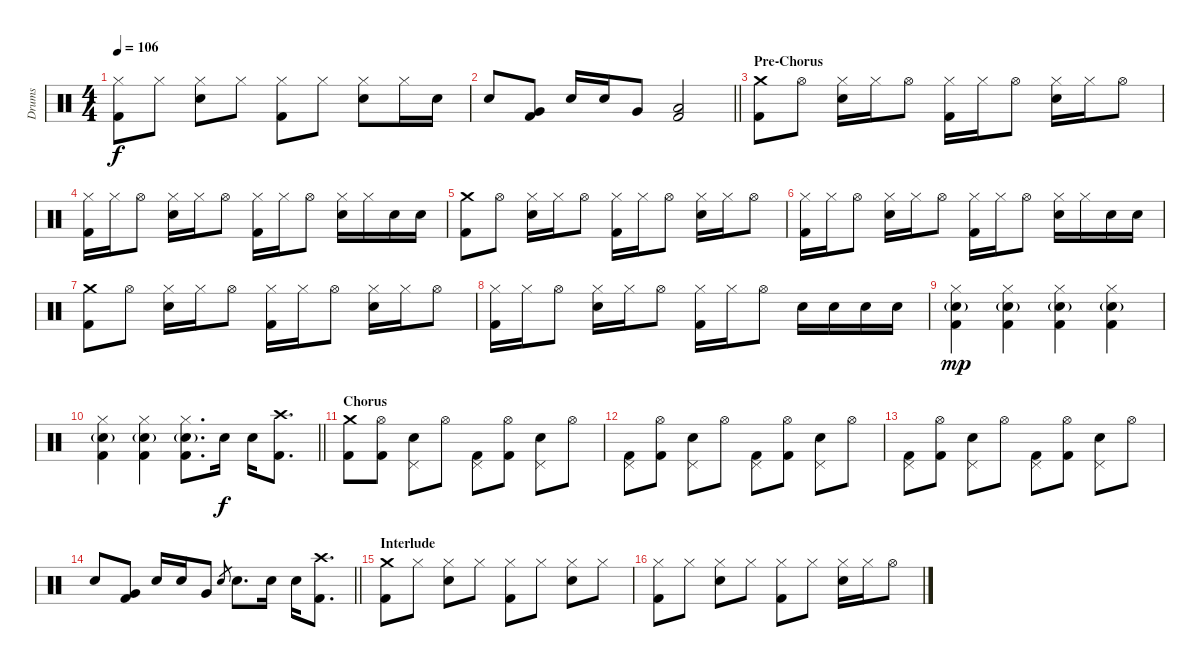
\track ("Drums" "Drums") {instrument percussion}
\staff {score}
\articulation defaults
\ts (4 4)
\tempo 106
\clef neutral
\ks c
("Hi-Hat (closed)" "Kick (hit) 2").8{dy f} "Hi-Hat (closed)".8 ("Hi-Hat (closed)" "Electric Snare (hit)").8 "Hi-Hat (closed)".8 ("Hi-Hat (closed)" "Kick (hit) 2").8 "Hi-Hat (closed)".8 ("Hi-Hat (closed)" "Electric Snare (hit)").8 "Hi-Hat (closed)".16 "Electric Snare (hit)".16 |
\barLineRight lightlight "Electric Snare (hit)".8
("Very Low Tom (hit)" "Kick (hit) 2").8 "Electric Snare (hit)".16 "Electric Snare (hit)".16 "Very Low Tom (hit)".8 ("Low Floor Tom (hit)" "Kick (hit) 2").2 |
\section ("" "Pre-Chorus")
("Crash medium (hit)" "Kick (hit) 2").8 "Hi-Hat (open)".8 ("Hi-Hat (closed)" "Electric Snare (hit)").16 "Hi-Hat (closed)".16 "Hi-Hat (open)".8 ("Hi-Hat (closed)" "Kick (hit) 2").16 "Hi-Hat (closed)".16 "Hi-Hat (open)".8 ("Hi-Hat (closed)" "Electric Snare (hit)").16 "Hi-Hat (closed)".16 "Hi-Hat (open)".8 |
("Hi-Hat (closed)" "Kick (hit) 2").16 "Hi-Hat (closed)".16 "Hi-Hat (open)".8 ("Hi-Hat (closed)" "Electric Snare (hit)").16 "Hi-Hat (closed)".16 "Hi-Hat (open)".8 ("Hi-Hat (closed)" "Kick (hit) 2").16 "Hi-Hat (closed)".16 "Hi-Hat (open)".8 ("Hi-Hat (closed)" "Electric Snare (hit)").16 "Hi-Hat (closed)".16 "Electric Snare (hit)".16 "Electric Snare (hit)".16 |
("Crash medium (hit)" "Kick (hit) 2").8 "Hi-Hat (open)".8 ("Hi-Hat (closed)" "Electric Snare (hit)").16 "Hi-Hat (closed)".16 "Hi-Hat (open)".8 ("Hi-Hat (closed)" "Kick (hit) 2").16 "Hi-Hat (closed)".16 "Hi-Hat (open)".8 ("Hi-Hat (closed)" "Electric Snare (hit)").16 "Hi-Hat (closed)".16 "Hi-Hat (open)".8 |
("Hi-Hat (closed)" "Kick (hit) 2").16 "Hi-Hat (closed)".16 "Hi-Hat (open)".8 ("Hi-Hat (closed)" "Electric Snare (hit)").16 "Hi-Hat (closed)".16 "Hi-Hat (open)".8 ("Hi-Hat (closed)" "Kick (hit) 2").16 "Hi-Hat (closed)".16 "Hi-Hat (open)".8 ("Hi-Hat (closed)" "Electric Snare (hit)").16 "Hi-Hat (closed)".16 "Electric Snare (hit)".16 "Electric Snare (hit)".16 |
("Crash medium (hit)" "Kick (hit) 2").8 "Hi-Hat (open)".8 ("Hi-Hat (closed)" "Electric Snare (hit)").16 "Hi-Hat (closed)".16 "Hi-Hat (open)".8 ("Hi-Hat (closed)" "Kick (hit) 2").16 "Hi-Hat (closed)".16 "Hi-Hat (open)".8 ("Hi-Hat (closed)" "Electric Snare (hit)").16 "Hi-Hat (closed)".16 "Hi-Hat (open)".8 |
("Hi-Hat (closed)" "Kick (hit) 2").16 "Hi-Hat (closed)".16 "Hi-Hat (open)".8 ("Hi-Hat (closed)" "Electric Snare (hit)").16 "Hi-Hat (closed)".16 "Hi-Hat (open)".8 ("Hi-Hat (closed)" "Kick (hit) 2").16 "Hi-Hat (closed)".16 "Hi-Hat (open)".8 "Electric Snare (hit)".16 "Electric Snare (hit)".16 "Electric Snare (hit)".16 "Electric Snare (hit)".16 |
("Hi-Hat (closed)" "Electric Snare (hit)"{g} "Kick (hit) 2").4{dy mp} ("Hi-Hat (closed)" "Electric Snare (hit)"{g} "Kick (hit) 2").4 ("Hi-Hat (closed)" "Electric Snare (hit)"{g} "Kick (hit) 2").4 ("Hi-Hat (closed)" "Electric Snare (hit)"{g} "Kick (hit) 2").4 |
\barLineRight lightlight
("Hi-Hat (closed)" "Electric Snare (hit)"{g} "Kick (hit) 2").4 ("Hi-Hat (closed)" "Electric Snare (hit)"{g} "Kick (hit) 2").4 ("Hi-Hat (closed)" "Electric Snare (hit)"{g} "Kick (hit) 2").8{d} "Electric Snare (hit)".16{dy f} "Electric Snare (hit)".16 ("Crash high (hit)" "Kick (hit) 2").8{d} |
\section ("" "Chorus")
("Crash medium (hit)" "Kick (hit) 2").8 ("Hi-Hat (open)" "Kick (hit) 2").8 ("Pedal Hi-Hat (hit)" "Electric Snare (hit)").8 "Hi-Hat (open)".8 ("Pedal Hi-Hat (hit)" "Kick (hit) 2").8 ("Hi-Hat (open)" "Kick (hit) 2").8 ("Pedal Hi-Hat (hit)" "Electric Snare (hit)").8 "Hi-Hat (open)".8 |
("Pedal Hi-Hat (hit)" "Kick (hit) 2").8 ("Hi-Hat (open)" "Kick (hit) 2").8 ("Pedal Hi-Hat (hit)" "Electric Snare (hit)").8 "Hi-Hat (open)".8 ("Pedal Hi-Hat (hit)" "Kick (hit) 2").8 ("Hi-Hat (open)" "Kick (hit) 2").8 ("Pedal Hi-Hat (hit)" "Electric Snare (hit)").8 "Hi-Hat (open)".8 |
("Pedal Hi-Hat (hit)" "Kick (hit) 2").8 ("Hi-Hat (open)" "Kick (hit) 2").8 ("Pedal Hi-Hat (hit)" "Electric Snare (hit)").8 "Hi-Hat (open)".8 ("Pedal Hi-Hat (hit)" "Kick (hit) 2").8 ("Hi-Hat (open)" "Kick (hit) 2").8 ("Pedal Hi-Hat (hit)" "Electric Snare (hit)").8 "Hi-Hat (open)".8 |
\barLineRight lightlight "Electric Snare (hit)".8
("Very Low Tom (hit)" "Kick (hit) 2").8 "Electric Snare (hit)".16 "Electric Snare (hit)".16 "Very Low Tom (hit)".8 "Electric Snare (hit)".8{gr} "Electric Snare (hit)".8{d} "Electric Snare (hit)".16 "Electric Snare (hit)".16 ("Crash high (hit)" "Kick (hit) 2").8{d} |
\section ("" "Interlude")
("Crash medium (hit)" "Kick (hit) 2").8 "Hi-Hat (closed)".8 ("Hi-Hat (closed)" "Electric Snare (hit)").8 "Hi-Hat (closed)".8 ("Hi-Hat (closed)" "Kick (hit) 2").8 "Hi-Hat (closed)".8 ("Hi-Hat (closed)" "Electric Snare (hit)").8 "Hi-Hat (closed)".8 |
("Hi-Hat (closed)" "Kick (hit) 2").8 "Hi-Hat (closed)".8 ("Hi-Hat (closed)" "Electric Snare (hit)").8 "Hi-Hat (closed)".8 ("Hi-Hat (closed)" "Kick (hit) 2").8 "Hi-Hat (closed)".8 ("Hi-Hat (closed)" "Electric Snare (hit)").16 "Hi-Hat (closed)".16 "Hi-Hat (open)".8
